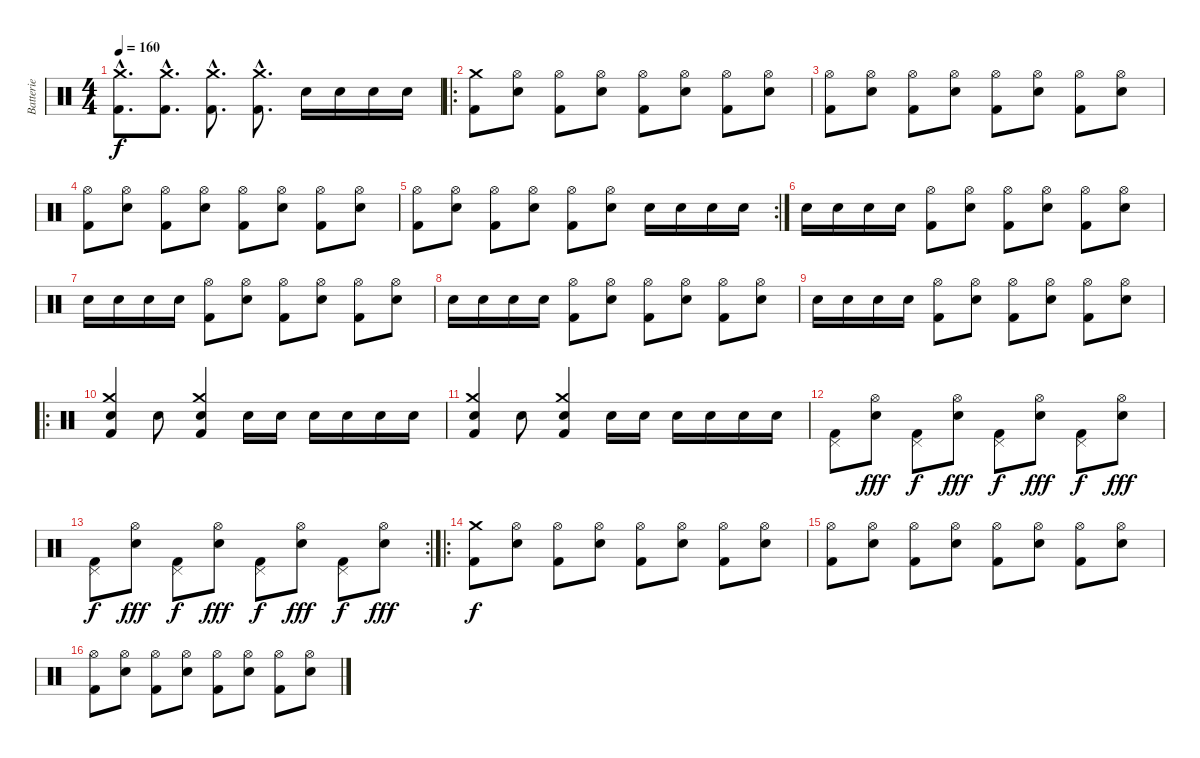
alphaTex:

\track ("Batterie" "Batterie") {instrument percussion}
\staff {score}
\articulation defaults
\ts (4 4)
\tempo 160
\clef neutral
\ks c
("Kick (hit) 2"{hac} "Crash medium (hit)"{hac}).8{d dy f} ("Kick (hit) 2"{hac} "Crash medium (hit)"{hac}).8{d} ("Kick (hit) 2"{hac} "Crash medium (hit)"{hac}).8{d} ("Kick (hit) 2"{hac} "Crash medium (hit)"{hac}).8{d} "Electric Snare (hit)".16 "Electric Snare (hit)".16 "Electric Snare (hit)".16 "Electric Snare (hit)".16 |
\ro
("Kick (hit) 2" "Crash medium (hit)").8 ("Electric Snare (hit)" "Hi-Hat (open)").8 ("Kick (hit) 2" "Hi-Hat (open)").8 ("Electric Snare (hit)" "Hi-Hat (open)").8 ("Kick (hit) 2" "Hi-Hat (open)").8 ("Electric Snare (hit)" "Hi-Hat (open)").8 ("Kick (hit) 2" "Hi-Hat (open)").8 ("Electric Snare (hit)" "Hi-Hat (open)").8 |
("Kick (hit) 2" "Hi-Hat (open)").8 ("Electric Snare (hit)" "Hi-Hat (open)").8 ("Kick (hit) 2" "Hi-Hat (open)").8 ("Electric Snare (hit)" "Hi-Hat (open)").8 ("Kick (hit) 2" "Hi-Hat (open)").8 ("Electric Snare (hit)" "Hi-Hat (open)").8 ("Kick (hit) 2" "Hi-Hat (open)").8 ("Electric Snare (hit)" "Hi-Hat (open)").8 |
("Kick (hit) 2" "Hi-Hat (open)").8 ("Electric Snare (hit)" "Hi-Hat (open)").8 ("Kick (hit) 2" "Hi-Hat (open)").8 ("Electric Snare (hit)" "Hi-Hat (open)").8 ("Kick (hit) 2" "Hi-Hat (open)").8 ("Electric Snare (hit)" "Hi-Hat (open)").8 ("Kick (hit) 2" "Hi-Hat (open)").8 ("Electric Snare (hit)" "Hi-Hat (open)").8 |
\rc 2
("Kick (hit) 2" "Hi-Hat (open)").8 ("Electric Snare (hit)" "Hi-Hat (open)").8 ("Kick (hit) 2" "Hi-Hat (open)").8 ("Electric Snare (hit)" "Hi-Hat (open)").8 ("Kick (hit) 2" "Hi-Hat (open)").8 ("Electric Snare (hit)" "Hi-Hat (open)").8 "Electric Snare (hit)".16 "Electric Snare (hit)".16 "Electric Snare (hit)".16 "Electric Snare (hit)".16 |
"Electric Snare (hit)".16 "Electric Snare (hit)".16 "Electric Snare (hit)".16 "Electric Snare (hit)".16 ("Kick (hit) 2" "Hi-Hat (open)").8 ("Electric Snare (hit)" "Hi-Hat (open)").8 ("Kick (hit) 2" "Hi-Hat (open)").8 ("Electric Snare (hit)" "Hi-Hat (open)").8 ("Kick (hit) 2" "Hi-Hat (open)").8 ("Electric Snare (hit)" "Hi-Hat (open)").8 |
"Electric Snare (hit)".16 "Electric Snare (hit)".16 "Electric Snare (hit)".16 "Electric Snare (hit)".16 ("Kick (hit) 2" "Hi-Hat (open)").8 ("Electric Snare (hit)" "Hi-Hat (open)").8 ("Kick (hit) 2" "Hi-Hat (open)").8 ("Electric Snare (hit)" "Hi-Hat (open)").8 ("Kick (hit) 2" "Hi-Hat (open)").8 ("Electric Snare (hit)" "Hi-Hat (open)").8 |
"Electric Snare (hit)".16 "Electric Snare (hit)".16 "Electric Snare (hit)".16 "Electric Snare (hit)".16 ("Kick (hit) 2" "Hi-Hat (open)").8 ("Electric Snare (hit)" "Hi-Hat (open)").8 ("Kick (hit) 2" "Hi-Hat (open)").8 ("Electric Snare (hit)" "Hi-Hat (open)").8 ("Kick (hit) 2" "Hi-Hat (open)").8 ("Electric Snare (hit)" "Hi-Hat (open)").8 |
"Electric Snare (hit)".16 "Electric Snare (hit)".16 "Electric Snare (hit)".16 "Electric Snare (hit)".16 ("Kick (hit) 2" "Hi-Hat (open)").8 ("Electric Snare (hit)" "Hi-Hat (open)").8 ("Kick (hit) 2" "Hi-Hat (open)").8 ("Electric Snare (hit)" "Hi-Hat (open)").8 ("Kick (hit) 2" "Hi-Hat (open)").8 ("Electric Snare (hit)" "Hi-Hat (open)").8 |
\ro
("Kick (hit) 2" "Electric Snare (hit)" "Crash medium (hit)").4 "Electric Snare (hit)".8 ("Kick (hit) 2" "Electric Snare (hit)" "Crash medium (hit)").4 "Electric Snare (hit)".16 "Electric Snare (hit)".16 "Electric Snare (hit)".16 "Electric Snare (hit)".16 "Electric Snare (hit)".16 "Electric Snare (hit)".16 |
("Kick (hit) 2" "Electric Snare (hit)" "Crash medium (hit)").4 "Electric Snare (hit)".8 ("Kick (hit) 2" "Electric Snare (hit)" "Crash medium (hit)").4 "Electric Snare (hit)".16 "Electric Snare (hit)".16 "Electric Snare (hit)".16 "Electric Snare (hit)".16 "Electric Snare (hit)".16 "Electric Snare (hit)".16 |
("Kick (hit) 2" "Pedal Hi-Hat (hit)").8 ("Electric Snare (hit)" "Hi-Hat (open)").8{dy fff} ("Kick (hit) 2" "Pedal Hi-Hat (hit)").8{dy f} ("Electric Snare (hit)" "Hi-Hat (open)").8{dy fff} ("Kick (hit) 2" "Pedal Hi-Hat (hit)").8{dy f} ("Electric Snare (hit)" "Hi-Hat (open)").8{dy fff} ("Kick (hit) 2" "Pedal Hi-Hat (hit)").8{dy f} ("Electric Snare (hit)" "Hi-Hat (open)").8{dy fff} |
\rc 2
("Kick (hit) 2" "Pedal Hi-Hat (hit)").8{dy f} ("Electric Snare (hit)" "Hi-Hat (open)").8{dy fff} ("Kick (hit) 2" "Pedal Hi-Hat (hit)").8{dy f} ("Electric Snare (hit)" "Hi-Hat (open)").8{dy fff} ("Kick (hit) 2" "Pedal Hi-Hat (hit)").8{dy f} ("Electric Snare (hit)" "Hi-Hat (open)").8{dy fff} ("Kick (hit) 2" "Pedal Hi-Hat (hit)").8{dy f} ("Electric Snare (hit)" "Hi-Hat (open)").8{dy fff} |
\ro
("Kick (hit) 2" "Crash medium (hit)").8{dy f} ("Electric Snare (hit)" "Hi-Hat (open)").8 ("Kick (hit) 2" "Hi-Hat (open)").8 ("Electric Snare (hit)" "Hi-Hat (open)").8 ("Kick (hit) 2" "Hi-Hat (open)").8 ("Electric Snare (hit)" "Hi-Hat (open)").8 ("Kick (hit) 2" "Hi-Hat (open)").8 ("Electric Snare (hit)" "Hi-Hat (open)").8 |
("Kick (hit) 2" "Hi-Hat (open)").8 ("Electric Snare (hit)" "Hi-Hat (open)").8 ("Kick (hit) 2" "Hi-Hat (open)").8 ("Electric Snare (hit)" "Hi-Hat (open)").8 ("Kick (hit) 2" "Hi-Hat (open)").8 ("Electric Snare (hit)" "Hi-Hat (open)").8 ("Kick (hit) 2" "Hi-Hat (open)").8 ("Electric Snare (hit)" "Hi-Hat (open)").8 |
("Kick (hit) 2" "Hi-Hat (open)").8 ("Electric Snare (hit)" "Hi-Hat (open)").8 ("Kick (hit) 2" "Hi-Hat (open)").8 ("Electric Snare (hit)" "Hi-Hat (open)").8 ("Kick (hit) 2" "Hi-Hat (open)").8 ("Electric Snare (hit)" "Hi-Hat (open)").8 ("Kick (hit) 2" "Hi-Hat (open)").8 ("Electric Snare (hit)" "Hi-Hat (open)").8
